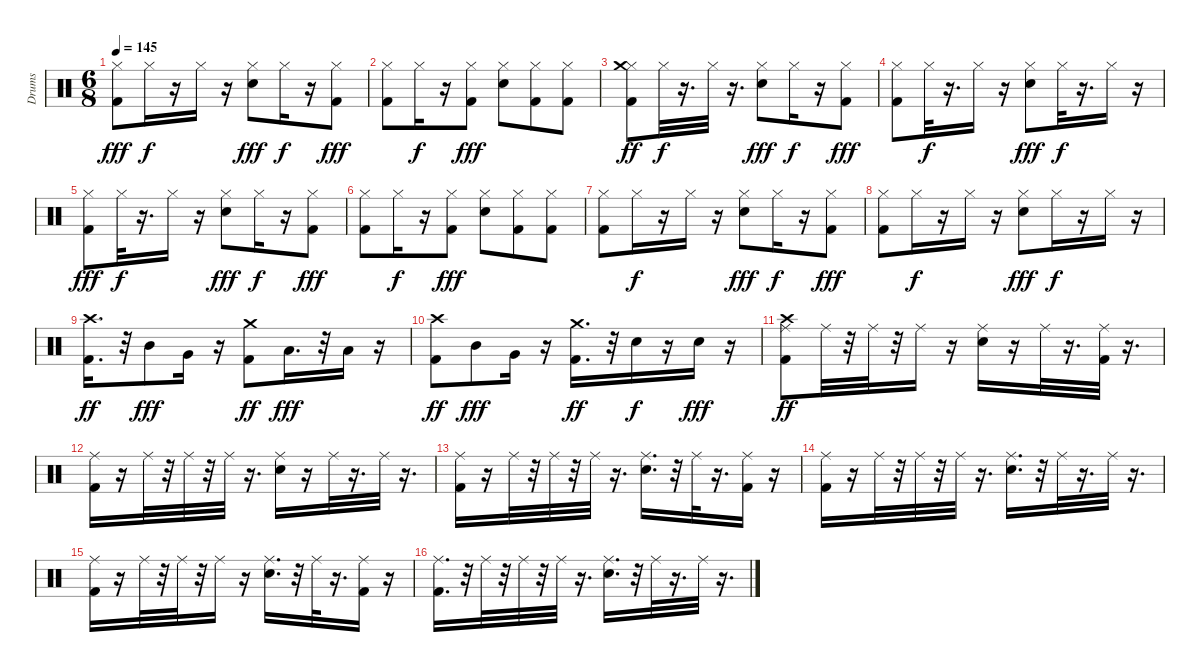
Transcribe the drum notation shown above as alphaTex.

\track ("Drums" "Drums") {instrument percussion}
\staff {score}
\articulation defaults
\ts (6 8)
\tempo 145
\clef neutral
\ks c
("Kick (hit) 2" "Hi-Hat (closed)").8{dy fff} "Hi-Hat (closed)".16{dy f} r.16 "Hi-Hat (closed)".16 r.16 ("Snare (hit) 2" "Hi-Hat (closed)").8{dy fff} "Hi-Hat (closed)".16{dy f} r.16 ("Kick (hit) 2" "Hi-Hat (closed)").8{dy fff} |
("Kick (hit) 2" "Hi-Hat (closed)").8 "Hi-Hat (closed)".16{dy f} r.16 ("Kick (hit) 2" "Hi-Hat (closed)").8{dy fff} ("Snare (hit) 2" "Hi-Hat (closed)").8 ("Kick (hit) 2" "Hi-Hat (closed)").8 ("Kick (hit) 2" "Hi-Hat (closed)").8 |
("Kick (hit) 2" "Hi-Hat (closed)" "Crash medium (hit)").8{dy ff} "Hi-Hat (closed)".32{dy f} r.16{d} "Hi-Hat (closed)".32 r.16{d} ("Snare (hit) 2" "Hi-Hat (closed)").8{dy fff} "Hi-Hat (closed)".16{dy f} r.16 ("Kick (hit) 2" "Hi-Hat (closed)").8{dy fff} |
("Kick (hit) 2" "Hi-Hat (closed)").8 "Hi-Hat (closed)".32{dy f} r.16{d} "Hi-Hat (closed)".16 r.16 ("Snare (hit) 2" "Hi-Hat (closed)").8{dy fff} "Hi-Hat (closed)".32{dy f} r.16{d} "Hi-Hat (closed)".16 r.16 |
("Kick (hit) 2" "Hi-Hat (closed)").8{dy fff} "Hi-Hat (closed)".32{dy f} r.16{d} "Hi-Hat (closed)".16 r.16 ("Snare (hit) 2" "Hi-Hat (closed)").8{dy fff} "Hi-Hat (closed)".16{dy f} r.16 ("Kick (hit) 2" "Hi-Hat (closed)").8{dy fff} |
("Kick (hit) 2" "Hi-Hat (closed)").8 "Hi-Hat (closed)".16{dy f} r.16 ("Kick (hit) 2" "Hi-Hat (closed)").8{dy fff} ("Snare (hit) 2" "Hi-Hat (closed)").8 ("Kick (hit) 2" "Hi-Hat (closed)").8 ("Kick (hit) 2" "Hi-Hat (closed)").8 |
("Kick (hit) 2" "Hi-Hat (closed)").8 "Hi-Hat (closed)".16{dy f} r.16 "Hi-Hat (closed)".16 r.16 ("Snare (hit) 2" "Hi-Hat (closed)").8{dy fff} "Hi-Hat (closed)".16{dy f} r.16 ("Kick (hit) 2" "Hi-Hat (closed)").8{dy fff} |
("Kick (hit) 2" "Hi-Hat (closed)").8 "Hi-Hat (closed)".16{dy f} r.16 "Hi-Hat (closed)".16 r.16 ("Snare (hit) 2" "Hi-Hat (closed)").8{dy fff} "Hi-Hat (closed)".16{dy f} r.16 "Hi-Hat (closed)".16 r.16 |
("Kick (hit) 2" "Crash high (hit)").16{d dy ff} r.32 "Mid Tom (hit)".8{dy fff} "Very Low Tom (hit)".16 r.16 ("Kick (hit) 2" "Crash medium (hit)").8{dy ff} "Low Tom (hit)".16{d dy fff} r.32 "Low Floor Tom (hit)".16 r.16 |
("Kick (hit) 2" "Crash high (hit)").8{dy ff} "Mid Tom (hit)".8{dy fff} "Very Low Tom (hit)".16 r.16 ("Kick (hit) 2" "Crash medium (hit)").16{d dy ff} r.32 "Snare (hit) 2".16{dy f} r.16 "Snare (hit) 2".16{dy fff} r.16 |
("Kick (hit) 2" "Ride (middle)" "Crash high (hit)").8{dy ff} "Ride (middle)".32 r.32 "Ride (middle)".32 r.32 "Ride (middle)".16 r.16 ("Snare (hit) 2" "Ride (middle)").16 r.16 "Ride (middle)".32 r.16{d} ("Kick (hit) 2" "Ride (middle)").32 r.16{d} |
("Kick (hit) 2" "Ride (middle)").16 r.16 "Ride (middle)".32 r.32 "Ride (middle)".32 r.32 "Ride (middle)".32 r.16{d} ("Snare (hit) 2" "Ride (middle)").16 r.16 "Ride (middle)".32 r.16{d} "Ride (middle)".32 r.16{d} |
("Kick (hit) 2" "Ride (middle)").16 r.16 "Ride (middle)".32 r.32 "Ride (middle)".32 r.32 "Ride (middle)".32 r.16{d} ("Snare (hit) 2" "Ride (middle)").16{d} r.32 "Ride (middle)".32 r.16{d} ("Kick (hit) 2" "Ride (middle)").16 r.16 |
("Kick (hit) 2" "Ride (middle)").16 r.16 "Ride (middle)".32 r.32 "Ride (middle)".32 r.32 "Ride (middle)".32 r.16{d} ("Snare (hit) 2" "Ride (middle)").16{d} r.32 "Ride (middle)".32 r.16{d} "Ride (middle)".32 r.16{d} |
("Kick (hit) 2" "Ride (middle)").16 r.16 "Ride (middle)".32 r.32 "Ride (middle)".32 r.32 "Ride (middle)".16 r.16 ("Snare (hit) 2" "Ride (middle)").16{d} r.32 "Ride (middle)".32 r.16{d} ("Kick (hit) 2" "Ride (middle)").16 r.16 |
("Kick (hit) 2" "Ride (middle)").16{d} r.32 "Ride (middle)".32 r.32 "Ride (middle)".32 r.32 "Ride (middle)".32 r.16{d} ("Snare (hit) 2" "Ride (middle)").16{d} r.32 "Ride (middle)".32 r.16{d} "Ride (middle)".32 r.16{d}
